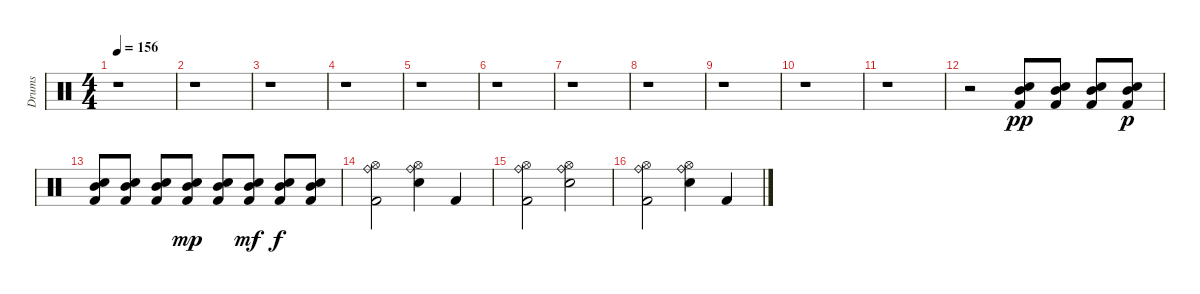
\track ("Drums" "Drums") {instrument percussion}
\staff {score}
\articulation defaults
\ts (4 4)
\tempo 156
\clef neutral
\ks c
r.1{dy f} |
r.1 |
r.1 |
r.1 |
r.1 |
r.1 |
r.1 |
r.1 |
r.1 |
r.1 |
r.1 |
r.2 ("Kick (hit) 2" "Electric Snare (hit)" "Mid Tom (hit)").8{dy pp} ("Kick (hit) 2" "Electric Snare (hit)" "Mid Tom (hit)").8 ("Kick (hit) 2" "Electric Snare (hit)" "Mid Tom (hit)").8 ("Kick (hit) 2" "Electric Snare (hit)" "Mid Tom (hit)").8{dy p} |
("Kick (hit) 2" "Electric Snare (hit)" "Mid Tom (hit)").8 ("Kick (hit) 2" "Electric Snare (hit)" "Mid Tom (hit)").8 ("Kick (hit) 2" "Electric Snare (hit)" "Mid Tom (hit)").8 ("Kick (hit) 2" "Electric Snare (hit)" "Mid Tom (hit)").8{dy mp} ("Kick (hit) 2" "Electric Snare (hit)" "Mid Tom (hit)").8 ("Kick (hit) 2" "Electric Snare (hit)" "Mid Tom (hit)").8{dy mf} ("Kick (hit) 2" "Electric Snare (hit)" "Mid Tom (hit)").8{dy f} ("Kick (hit) 2" "Electric Snare (hit)" "Mid Tom (hit)").8 |
("Kick (hit) 2" "Ride (bell)" "Hi-Hat (open)").2 ("Electric Snare (hit)" "Ride (bell)" "Hi-Hat (open)").4 "Kick (hit) 2".4 |
("Kick (hit) 2" "Ride (bell)" "Hi-Hat (open)").2 ("Electric Snare (hit)" "Ride (bell)" "Hi-Hat (open)").2 |
("Kick (hit) 2" "Ride (bell)" "Hi-Hat (open)").2 ("Electric Snare (hit)" "Ride (bell)" "Hi-Hat (open)").4 "Kick (hit) 2".4
